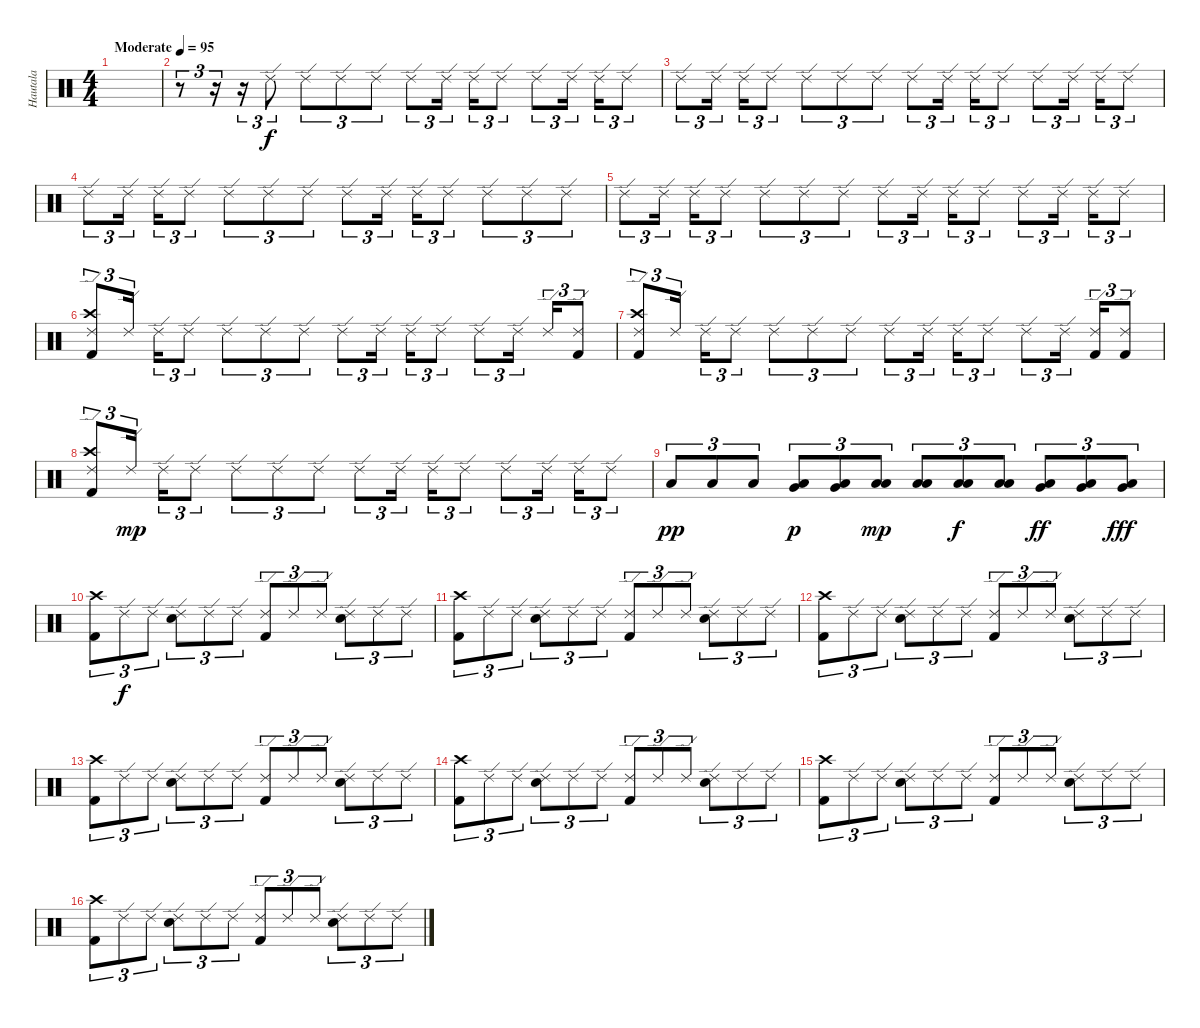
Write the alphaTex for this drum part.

\track ("Hautala" "Hautala") {instrument percussion}
\staff {score}
\articulation defaults
\ts (4 4)
\tempo (95 "Moderate")
\clef neutral
\ks c
|
r.8{tu (3 2)} r.16{tu (3 2)} r.16{tu (3 2)} "Ride (edge) 2".8{tu (3 2)} "Ride (edge) 2".8{tu (3 2)} "Ride (edge) 2".8{tu (3 2)} "Ride (edge) 2".8{tu (3 2)} "Ride (edge) 2".8{tu (3 2)} "Ride (edge) 2".16{tu (3 2) beam splitsecondary} "Ride (edge) 2".16{tu (3 2)} "Ride (edge) 2".8{tu (3 2)} "Ride (edge) 2".8{tu (3 2)} "Ride (edge) 2".16{tu (3 2) beam splitsecondary} "Ride (edge) 2".16{tu (3 2)} "Ride (edge) 2".8{tu (3 2)} |
"Ride (edge) 2".8{tu (3 2)} "Ride (edge) 2".16{tu (3 2) beam splitsecondary} "Ride (edge) 2".16{tu (3 2)} "Ride (edge) 2".8{tu (3 2)} "Ride (edge) 2".8{tu (3 2)} "Ride (edge) 2".8{tu (3 2)} "Ride (edge) 2".8{tu (3 2)} "Ride (edge) 2".8{tu (3 2)} "Ride (edge) 2".16{tu (3 2) beam splitsecondary} "Ride (edge) 2".16{tu (3 2)} "Ride (edge) 2".8{tu (3 2)} "Ride (edge) 2".8{tu (3 2)} "Ride (edge) 2".16{tu (3 2) beam splitsecondary} "Ride (edge) 2".16{tu (3 2)} "Ride (edge) 2".8{tu (3 2)} |
"Ride (edge) 2".8{tu (3 2)} "Ride (edge) 2".16{tu (3 2) beam splitsecondary} "Ride (edge) 2".16{tu (3 2)} "Ride (edge) 2".8{tu (3 2)} "Ride (edge) 2".8{tu (3 2)} "Ride (edge) 2".8{tu (3 2)} "Ride (edge) 2".8{tu (3 2)} "Ride (edge) 2".8{tu (3 2)} "Ride (edge) 2".16{tu (3 2) beam splitsecondary} "Ride (edge) 2".16{tu (3 2)} "Ride (edge) 2".8{tu (3 2)} "Ride (edge) 2".8{tu (3 2)} "Ride (edge) 2".8{tu (3 2)} "Ride (edge) 2".8{tu (3 2)} |
"Ride (edge) 2".8{tu (3 2)} "Ride (edge) 2".16{tu (3 2) beam splitsecondary} "Ride (edge) 2".16{tu (3 2)} "Ride (edge) 2".8{tu (3 2)} "Ride (edge) 2".8{tu (3 2)} "Ride (edge) 2".8{tu (3 2)} "Ride (edge) 2".8{tu (3 2)} "Ride (edge) 2".8{tu (3 2)} "Ride (edge) 2".16{tu (3 2) beam splitsecondary} "Ride (edge) 2".16{tu (3 2)} "Ride (edge) 2".8{tu (3 2)} "Ride (edge) 2".8{tu (3 2)} "Ride (edge) 2".16{tu (3 2) beam splitsecondary} "Ride (edge) 2".16{tu (3 2)} "Ride (edge) 2".8{tu (3 2)} |
("Crash high (hit)" "Ride (edge) 2" "Kick (hit) 2").8{tu (3 2)} "Ride (edge) 2".16{tu (3 2) beam splitsecondary} "Ride (edge) 2".16{tu (3 2)} "Ride (edge) 2".8{tu (3 2)} "Ride (edge) 2".8{tu (3 2)} "Ride (edge) 2".8{tu (3 2)} "Ride (edge) 2".8{tu (3 2)} "Ride (edge) 2".8{tu (3 2)} "Ride (edge) 2".16{tu (3 2) beam splitsecondary} "Ride (edge) 2".16{tu (3 2)} "Ride (edge) 2".8{tu (3 2)} "Ride (edge) 2".8{tu (3 2)} "Ride (edge) 2".16{tu (3 2) beam splitsecondary} "Ride (edge) 2".16{tu (3 2)} ("Ride (edge) 2" "Kick (hit) 2").8{tu (3 2)} |
("Crash high (hit)" "Ride (edge) 2" "Kick (hit) 2").8{tu (3 2)} "Ride (edge) 2".16{tu (3 2) beam splitsecondary} "Ride (edge) 2".16{tu (3 2)} "Ride (edge) 2".8{tu (3 2)} "Ride (edge) 2".8{tu (3 2)} "Ride (edge) 2".8{tu (3 2)} "Ride (edge) 2".8{tu (3 2)} "Ride (edge) 2".8{tu (3 2)} "Ride (edge) 2".16{tu (3 2) beam splitsecondary} "Ride (edge) 2".16{tu (3 2)} "Ride (edge) 2".8{tu (3 2)} "Ride (edge) 2".8{tu (3 2)} "Ride (edge) 2".16{tu (3 2) beam splitsecondary} ("Ride (edge) 2" "Kick (hit) 2").16{tu (3 2)} ("Ride (edge) 2" "Kick (hit) 2").8{tu (3 2)} |
("Crash high (hit)" "Ride (edge) 2" "Kick (hit) 2").8{tu (3 2)} "Ride (edge) 2".16{tu (3 2) dy mp beam splitsecondary} "Ride (edge) 2".16{tu (3 2)} "Ride (edge) 2".8{tu (3 2)} "Ride (edge) 2".8{tu (3 2)} "Ride (edge) 2".8{tu (3 2)} "Ride (edge) 2".8{tu (3 2)} "Ride (edge) 2".8{tu (3 2)} "Ride (edge) 2".16{tu (3 2) beam splitsecondary} "Ride (edge) 2".16{tu (3 2)} "Ride (edge) 2".8{tu (3 2)} "Ride (edge) 2".8{tu (3 2)} "Ride (edge) 2".16{tu (3 2) beam splitsecondary} "Ride (edge) 2".16{tu (3 2)} "Ride (edge) 2".8{tu (3 2)} |
"Low Floor Tom (hit)".8{tu (3 2) dy pp} "Low Floor Tom (hit)".8{tu (3 2)} "Low Floor Tom (hit)".8{tu (3 2)} ("Very Low Tom (hit)" "Low Floor Tom (hit)").8{tu (3 2) dy p} ("Very Low Tom (hit)" "Low Floor Tom (hit)").8{tu (3 2)} ("Low Tom (hit)" "Low Floor Tom (hit)").8{tu (3 2) dy mp} ("Low Tom (hit)" "Low Floor Tom (hit)").8{tu (3 2)} ("Low Tom (hit)" "Low Floor Tom (hit)").8{tu (3 2) dy f} ("Low Tom (hit)" "Low Floor Tom (hit)").8{tu (3 2)} ("Very Low Tom (hit)" "Low Floor Tom (hit)").8{tu (3 2) dy ff} ("Very Low Tom (hit)" "Low Floor Tom (hit)").8{tu (3 2)} ("Very Low Tom (hit)" "Low Floor Tom (hit)").8{tu (3 2) dy fff} |
("Crash high (hit)" "Kick (hit) 2").8{tu (3 2)} "Ride (edge) 2".8{tu (3 2) dy f} "Ride (edge) 2".8{tu (3 2)} ("Ride (edge) 2" "Snare (hit) 2").8{tu (3 2)} "Ride (edge) 2".8{tu (3 2)} "Ride (edge) 2".8{tu (3 2)} ("Ride (edge) 2" "Kick (hit) 2").8{tu (3 2)} "Ride (edge) 2".8{tu (3 2)} "Ride (edge) 2".8{tu (3 2)} ("Ride (edge) 2" "Snare (hit) 2").8{tu (3 2)} "Ride (edge) 2".8{tu (3 2)} "Ride (edge) 2".8{tu (3 2)} |
("Crash high (hit)" "Kick (hit) 2").8{tu (3 2)} "Ride (edge) 2".8{tu (3 2)} "Ride (edge) 2".8{tu (3 2)} ("Ride (edge) 2" "Snare (hit) 2").8{tu (3 2)} "Ride (edge) 2".8{tu (3 2)} "Ride (edge) 2".8{tu (3 2)} ("Ride (edge) 2" "Kick (hit) 2").8{tu (3 2)} "Ride (edge) 2".8{tu (3 2)} "Ride (edge) 2".8{tu (3 2)} ("Ride (edge) 2" "Snare (hit) 2").8{tu (3 2)} "Ride (edge) 2".8{tu (3 2)} "Ride (edge) 2".8{tu (3 2)} |
("Crash high (hit)" "Kick (hit) 2").8{tu (3 2)} "Ride (edge) 2".8{tu (3 2)} "Ride (edge) 2".8{tu (3 2)} ("Ride (edge) 2" "Snare (hit) 2").8{tu (3 2)} "Ride (edge) 2".8{tu (3 2)} "Ride (edge) 2".8{tu (3 2)} ("Ride (edge) 2" "Kick (hit) 2").8{tu (3 2)} "Ride (edge) 2".8{tu (3 2)} "Ride (edge) 2".8{tu (3 2)} ("Ride (edge) 2" "Snare (hit) 2").8{tu (3 2)} "Ride (edge) 2".8{tu (3 2)} "Ride (edge) 2".8{tu (3 2)} |
("Crash high (hit)" "Kick (hit) 2").8{tu (3 2)} "Ride (edge) 2".8{tu (3 2)} "Ride (edge) 2".8{tu (3 2)} ("Ride (edge) 2" "Snare (hit) 2").8{tu (3 2)} "Ride (edge) 2".8{tu (3 2)} "Ride (edge) 2".8{tu (3 2)} ("Ride (edge) 2" "Kick (hit) 2").8{tu (3 2)} "Ride (edge) 2".8{tu (3 2)} "Ride (edge) 2".8{tu (3 2)} ("Ride (edge) 2" "Snare (hit) 2").8{tu (3 2)} "Ride (edge) 2".8{tu (3 2)} "Ride (edge) 2".8{tu (3 2)} |
("Crash high (hit)" "Kick (hit) 2").8{tu (3 2)} "Ride (edge) 2".8{tu (3 2)} "Ride (edge) 2".8{tu (3 2)} ("Ride (edge) 2" "Snare (hit) 2").8{tu (3 2)} "Ride (edge) 2".8{tu (3 2)} "Ride (edge) 2".8{tu (3 2)} ("Ride (edge) 2" "Kick (hit) 2").8{tu (3 2)} "Ride (edge) 2".8{tu (3 2)} "Ride (edge) 2".8{tu (3 2)} ("Ride (edge) 2" "Snare (hit) 2").8{tu (3 2)} "Ride (edge) 2".8{tu (3 2)} "Ride (edge) 2".8{tu (3 2)} |
("Crash high (hit)" "Kick (hit) 2").8{tu (3 2)} "Ride (edge) 2".8{tu (3 2)} "Ride (edge) 2".8{tu (3 2)} ("Ride (edge) 2" "Snare (hit) 2").8{tu (3 2)} "Ride (edge) 2".8{tu (3 2)} "Ride (edge) 2".8{tu (3 2)} ("Ride (edge) 2" "Kick (hit) 2").8{tu (3 2)} "Ride (edge) 2".8{tu (3 2)} "Ride (edge) 2".8{tu (3 2)} ("Ride (edge) 2" "Snare (hit) 2").8{tu (3 2)} "Ride (edge) 2".8{tu (3 2)} "Ride (edge) 2".8{tu (3 2)} |
("Crash high (hit)" "Kick (hit) 2").8{tu (3 2)} "Ride (edge) 2".8{tu (3 2)} "Ride (edge) 2".8{tu (3 2)} ("Ride (edge) 2" "Snare (hit) 2").8{tu (3 2)} "Ride (edge) 2".8{tu (3 2)} "Ride (edge) 2".8{tu (3 2)} ("Ride (edge) 2" "Kick (hit) 2").8{tu (3 2)} "Ride (edge) 2".8{tu (3 2)} "Ride (edge) 2".8{tu (3 2)} ("Ride (edge) 2" "Snare (hit) 2").8{tu (3 2)} "Ride (edge) 2".8{tu (3 2)} "Ride (edge) 2".8{tu (3 2)}
